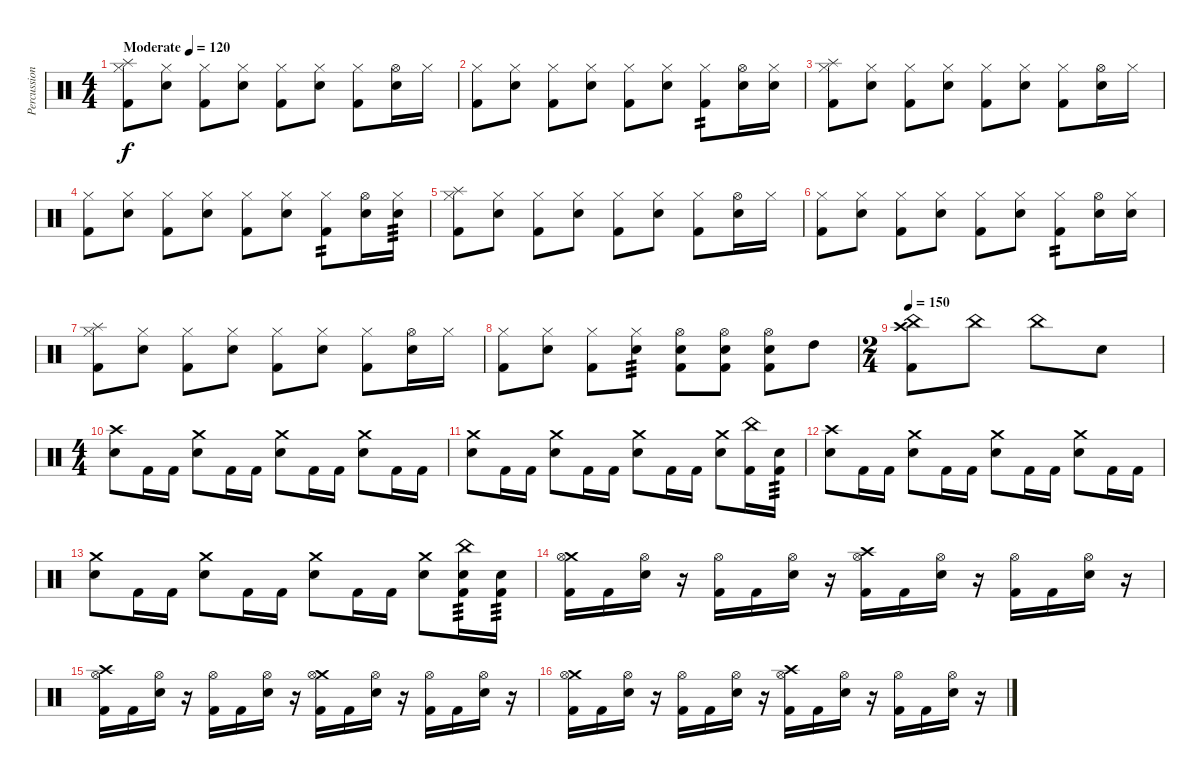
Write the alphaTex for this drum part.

\track ("Percussion" "Percussion") {instrument percussion}
\staff {score}
\articulation defaults
\ts (4 4)
\tempo (120 "Moderate")
\clef neutral
\ks c
("Splash (hit)" "Hi-Hat (closed)" "Kick (hit) 2").8{dy f} ("Hi-Hat (closed)" "Electric Snare (hit)").8 ("Hi-Hat (closed)" "Kick (hit) 2").8 ("Hi-Hat (closed)" "Electric Snare (hit)").8 ("Hi-Hat (closed)" "Kick (hit) 2").8 ("Hi-Hat (closed)" "Electric Snare (hit)").8 ("Hi-Hat (closed)" "Kick (hit) 2").8 ("Hi-Hat (open)" "Electric Snare (hit)").16 "Hi-Hat (closed)".16 |
("Hi-Hat (closed)" "Kick (hit) 2").8 ("Hi-Hat (closed)" "Electric Snare (hit)").8 ("Hi-Hat (closed)" "Kick (hit) 2").8 ("Hi-Hat (closed)" "Electric Snare (hit)").8 ("Hi-Hat (closed)" "Kick (hit) 2").8 ("Hi-Hat (closed)" "Electric Snare (hit)").8 ("Hi-Hat (closed)" "Kick (hit) 2").8{tp 2} ("Hi-Hat (open)" "Electric Snare (hit)").16 ("Hi-Hat (closed)" "Electric Snare (hit)").16 |
("Splash (hit)" "Hi-Hat (closed)" "Kick (hit) 2").8 ("Hi-Hat (closed)" "Electric Snare (hit)").8 ("Hi-Hat (closed)" "Kick (hit) 2").8 ("Hi-Hat (closed)" "Electric Snare (hit)").8 ("Hi-Hat (closed)" "Kick (hit) 2").8 ("Hi-Hat (closed)" "Electric Snare (hit)").8 ("Hi-Hat (closed)" "Kick (hit) 2").8 ("Hi-Hat (open)" "Electric Snare (hit)").16 "Hi-Hat (closed)".16 |
("Hi-Hat (closed)" "Kick (hit) 2").8 ("Hi-Hat (closed)" "Electric Snare (hit)").8 ("Hi-Hat (closed)" "Kick (hit) 2").8 ("Hi-Hat (closed)" "Electric Snare (hit)").8 ("Hi-Hat (closed)" "Kick (hit) 2").8 ("Hi-Hat (closed)" "Electric Snare (hit)").8 ("Hi-Hat (closed)" "Kick (hit) 2").8{tp 2} ("Hi-Hat (open)" "Electric Snare (hit)").16 ("Hi-Hat (closed)" "Electric Snare (hit)").16{tp 3} |
("Splash (hit)" "Hi-Hat (closed)" "Kick (hit) 2").8 ("Hi-Hat (closed)" "Electric Snare (hit)").8 ("Hi-Hat (closed)" "Kick (hit) 2").8 ("Hi-Hat (closed)" "Electric Snare (hit)").8 ("Hi-Hat (closed)" "Kick (hit) 2").8 ("Hi-Hat (closed)" "Electric Snare (hit)").8 ("Hi-Hat (closed)" "Kick (hit) 2").8 ("Hi-Hat (open)" "Electric Snare (hit)").16 "Hi-Hat (closed)".16 |
("Hi-Hat (closed)" "Kick (hit) 2").8 ("Hi-Hat (closed)" "Electric Snare (hit)").8 ("Hi-Hat (closed)" "Kick (hit) 2").8 ("Hi-Hat (closed)" "Electric Snare (hit)").8 ("Hi-Hat (closed)" "Kick (hit) 2").8 ("Hi-Hat (closed)" "Electric Snare (hit)").8 ("Hi-Hat (closed)" "Kick (hit) 2").8{tp 2} ("Hi-Hat (open)" "Electric Snare (hit)").16 ("Hi-Hat (closed)" "Electric Snare (hit)").16 |
("Splash (hit)" "Hi-Hat (closed)" "Kick (hit) 2").8 ("Hi-Hat (closed)" "Electric Snare (hit)").8 ("Hi-Hat (closed)" "Kick (hit) 2").8 ("Hi-Hat (closed)" "Electric Snare (hit)").8 ("Hi-Hat (closed)" "Kick (hit) 2").8 ("Hi-Hat (closed)" "Electric Snare (hit)").8 ("Hi-Hat (closed)" "Kick (hit) 2").8 ("Hi-Hat (open)" "Electric Snare (hit)").16 "Hi-Hat (closed)".16 |
("Hi-Hat (closed)" "Kick (hit) 2").8 ("Hi-Hat (closed)" "Electric Snare (hit)").8 ("Hi-Hat (closed)" "Kick (hit) 2").8 ("Hi-Hat (closed)" "Electric Snare (hit)").8{tp 3} ("Hi-Hat (open)" "Electric Snare (hit)" "Kick (hit) 2").8 ("Hi-Hat (open)" "Electric Snare (hit)" "Kick (hit) 2").8 ("Hi-Hat (open)" "Electric Snare (hit)" "Kick (hit) 2").8 "High Tom (hit)".8 |
\ts (2 4)
\tempo 150
("Crash high (hit)" "China (hit)" "Kick (hit) 2").8 "China (hit)".8 "China (hit)".8 "Electric Snare (hit)".8 |
\ts (4 4)
("Crash high (hit)" "Electric Snare (hit)").8 "Kick (hit) 2".16 "Kick (hit) 2".16 ("Crash medium (hit)" "Electric Snare (hit)").8 "Kick (hit) 2".16 "Kick (hit) 2".16 ("Crash medium (hit)" "Electric Snare (hit)").8 "Kick (hit) 2".16 "Kick (hit) 2".16 ("Crash medium (hit)" "Electric Snare (hit)").8 "Kick (hit) 2".16 "Kick (hit) 2".16 |
("Crash medium (hit)" "Electric Snare (hit)").8 "Kick (hit) 2".16 "Kick (hit) 2".16 ("Crash medium (hit)" "Electric Snare (hit)").8 "Kick (hit) 2".16 "Kick (hit) 2".16 ("Crash medium (hit)" "Electric Snare (hit)").8 "Kick (hit) 2".16 "Kick (hit) 2".16 ("Crash medium (hit)" "Electric Snare (hit)").8 ("China (hit)" "Kick (hit) 2").16 ("Electric Snare (hit)" "Kick (hit) 2").16{tp 3} |
("Crash high (hit)" "Electric Snare (hit)").8 "Kick (hit) 2".16 "Kick (hit) 2".16 ("Crash medium (hit)" "Electric Snare (hit)").8 "Kick (hit) 2".16 "Kick (hit) 2".16 ("Crash medium (hit)" "Electric Snare (hit)").8 "Kick (hit) 2".16 "Kick (hit) 2".16 ("Crash medium (hit)" "Electric Snare (hit)").8 "Kick (hit) 2".16 "Kick (hit) 2".16 |
("Crash medium (hit)" "Electric Snare (hit)").8 "Kick (hit) 2".16 "Kick (hit) 2".16 ("Crash medium (hit)" "Electric Snare (hit)").8 "Kick (hit) 2".16 "Kick (hit) 2".16 ("Crash medium (hit)" "Electric Snare (hit)").8 "Kick (hit) 2".16 "Kick (hit) 2".16 ("Crash medium (hit)" "Electric Snare (hit)").8 ("China (hit)" "Electric Snare (hit)" "Kick (hit) 2").16{tp 3} ("Electric Snare (hit)" "Kick (hit) 2").16{tp 3} |
("Crash medium (hit)" "Hi-Hat (open)" "Kick (hit) 2").16 "Kick (hit) 2".16 ("Hi-Hat (open)" "Electric Snare (hit)").16 r.16 ("Hi-Hat (open)" "Kick (hit) 2").16 "Kick (hit) 2".16 ("Hi-Hat (open)" "Electric Snare (hit)").16 r.16 ("Crash high (hit)" "Hi-Hat (open)" "Kick (hit) 2").16 "Kick (hit) 2".16 ("Hi-Hat (open)" "Electric Snare (hit)").16 r.16 ("Hi-Hat (open)" "Kick (hit) 2").16 "Kick (hit) 2".16 ("Hi-Hat (open)" "Electric Snare (hit)").16 r.16 |
("Crash high (hit)" "Hi-Hat (open)" "Kick (hit) 2").16 "Kick (hit) 2".16 ("Hi-Hat (open)" "Electric Snare (hit)").16 r.16 ("Hi-Hat (open)" "Kick (hit) 2").16 "Kick (hit) 2".16 ("Hi-Hat (open)" "Electric Snare (hit)").16 r.16 ("Crash medium (hit)" "Hi-Hat (open)" "Kick (hit) 2").16 "Kick (hit) 2".16 ("Hi-Hat (open)" "Electric Snare (hit)").16 r.16 ("Hi-Hat (open)" "Kick (hit) 2").16 "Kick (hit) 2".16 ("Hi-Hat (open)" "Electric Snare (hit)").16 r.16 |
("Crash medium (hit)" "Hi-Hat (open)" "Kick (hit) 2").16 "Kick (hit) 2".16 ("Hi-Hat (open)" "Electric Snare (hit)").16 r.16 ("Hi-Hat (open)" "Kick (hit) 2").16 "Kick (hit) 2".16 ("Hi-Hat (open)" "Electric Snare (hit)").16 r.16 ("Crash high (hit)" "Hi-Hat (open)" "Kick (hit) 2").16 "Kick (hit) 2".16 ("Hi-Hat (open)" "Electric Snare (hit)").16 r.16 ("Hi-Hat (open)" "Kick (hit) 2").16 "Kick (hit) 2".16 ("Hi-Hat (open)" "Electric Snare (hit)").16 r.16
